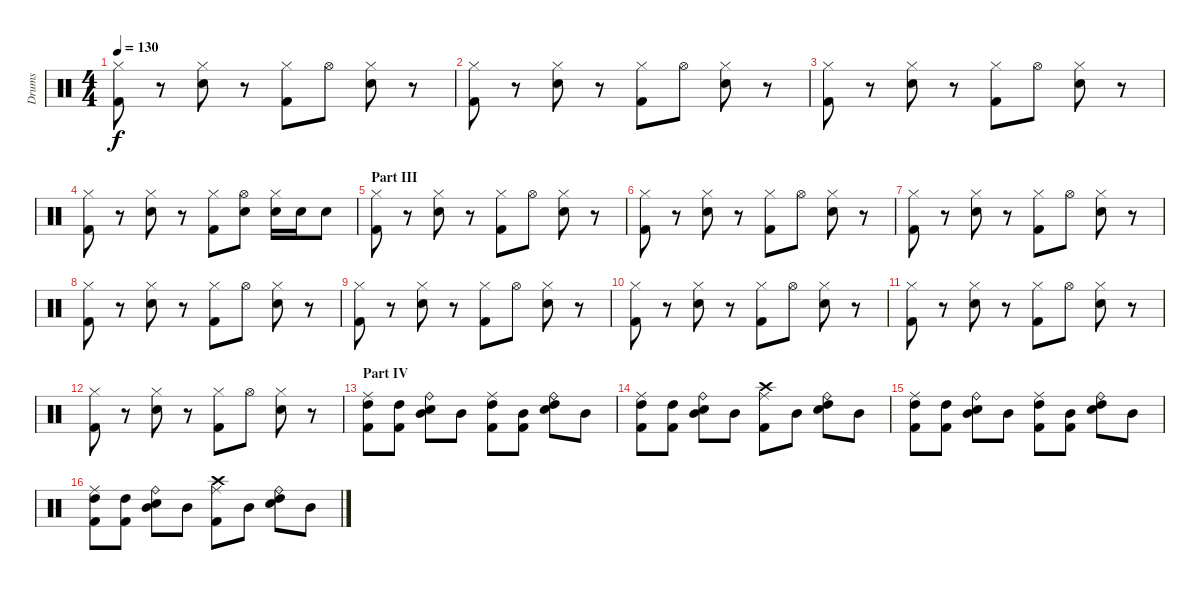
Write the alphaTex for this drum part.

\track ("Drums" "Drums") {instrument percussion}
\staff {score}
\articulation defaults
\ts (4 4)
\tempo 130
\clef neutral
\ks c
("Kick (hit) 2" "Hi-Hat (closed)").8{dy f} r.8 ("Snare (hit) 2" "Hi-Hat (closed)").8 r.8 ("Kick (hit) 2" "Hi-Hat (closed)").8 "Hi-Hat (open)".8 ("Snare (hit) 2" "Hi-Hat (closed)").8 r.8 |
("Kick (hit) 2" "Hi-Hat (closed)").8 r.8 ("Snare (hit) 2" "Hi-Hat (closed)").8 r.8 ("Kick (hit) 2" "Hi-Hat (closed)").8 "Hi-Hat (open)".8 ("Snare (hit) 2" "Hi-Hat (closed)").8 r.8 |
("Kick (hit) 2" "Hi-Hat (closed)").8 r.8 ("Snare (hit) 2" "Hi-Hat (closed)").8 r.8 ("Kick (hit) 2" "Hi-Hat (closed)").8 "Hi-Hat (open)".8 ("Snare (hit) 2" "Hi-Hat (closed)").8 r.8 |
("Kick (hit) 2" "Hi-Hat (closed)").8 r.8 ("Snare (hit) 2" "Hi-Hat (closed)").8 r.8 ("Kick (hit) 2" "Hi-Hat (closed)").8 ("Electric Snare (hit)" "Hi-Hat (open)").8 ("Snare (hit) 2" "Hi-Hat (closed)").16 "Electric Snare (hit)".16 "Electric Snare (hit)".8 |
\section ("" "Part III")
("Kick (hit) 2" "Hi-Hat (closed)").8 r.8 ("Snare (hit) 2" "Hi-Hat (closed)").8 r.8 ("Kick (hit) 2" "Hi-Hat (closed)").8 "Hi-Hat (open)".8 ("Snare (hit) 2" "Hi-Hat (closed)").8 r.8 |
("Kick (hit) 2" "Hi-Hat (closed)").8 r.8 ("Snare (hit) 2" "Hi-Hat (closed)").8 r.8 ("Kick (hit) 2" "Hi-Hat (closed)").8 "Hi-Hat (open)".8 ("Snare (hit) 2" "Hi-Hat (closed)").8 r.8 |
("Kick (hit) 2" "Hi-Hat (closed)").8 r.8 ("Snare (hit) 2" "Hi-Hat (closed)").8 r.8 ("Kick (hit) 2" "Hi-Hat (closed)").8 "Hi-Hat (open)".8 ("Snare (hit) 2" "Hi-Hat (closed)").8 r.8 |
("Kick (hit) 2" "Hi-Hat (closed)").8 r.8 ("Snare (hit) 2" "Hi-Hat (closed)").8 r.8 ("Kick (hit) 2" "Hi-Hat (closed)").8 "Hi-Hat (open)".8 ("Snare (hit) 2" "Hi-Hat (closed)").8 r.8 |
("Kick (hit) 2" "Hi-Hat (closed)").8 r.8 ("Snare (hit) 2" "Hi-Hat (closed)").8 r.8 ("Kick (hit) 2" "Hi-Hat (closed)").8 "Hi-Hat (open)".8 ("Snare (hit) 2" "Hi-Hat (closed)").8 r.8 |
("Kick (hit) 2" "Hi-Hat (closed)").8 r.8 ("Snare (hit) 2" "Hi-Hat (closed)").8 r.8 ("Kick (hit) 2" "Hi-Hat (closed)").8 "Hi-Hat (open)".8 ("Snare (hit) 2" "Hi-Hat (closed)").8 r.8 |
("Kick (hit) 2" "Hi-Hat (closed)").8 r.8 ("Snare (hit) 2" "Hi-Hat (closed)").8 r.8 ("Kick (hit) 2" "Hi-Hat (closed)").8 "Hi-Hat (open)".8 ("Snare (hit) 2" "Hi-Hat (closed)").8 r.8 |
("Kick (hit) 2" "Hi-Hat (closed)").8 r.8 ("Snare (hit) 2" "Hi-Hat (closed)").8 r.8 ("Kick (hit) 2" "Hi-Hat (closed)").8 "Hi-Hat (open)".8 ("Snare (hit) 2" "Hi-Hat (closed)").8 r.8 |
\section ("" "Part IV")
("Kick (hit) 2" "High Tom (hit)" "Ride (middle)").8 ("Kick (hit) 2" "High Tom (hit)").8 ("Snare (hit) 2" "Mid Tom (hit)" "Ride (bell)").8 "Mid Tom (hit)".8 ("Kick (hit) 2" "High Tom (hit)" "Ride (middle)").8 ("Kick (hit) 2" "Mid Tom (hit)").8 ("Snare (hit) 2" "High Tom (hit)" "Ride (bell)").8 "Mid Tom (hit)".8 |
("Kick (hit) 2" "High Tom (hit)" "Ride (middle)").8 ("Kick (hit) 2" "High Tom (hit)").8 ("Snare (hit) 2" "Mid Tom (hit)" "Ride (bell)").8 "Mid Tom (hit)".8 ("Kick (hit) 2" "Crash high (hit)" "Ride (middle)").8 "Mid Tom (hit)".8 ("Snare (hit) 2" "High Tom (hit)" "Ride (bell)").8 "Mid Tom (hit)".8 |
("Kick (hit) 2" "High Tom (hit)" "Ride (middle)").8 ("Kick (hit) 2" "High Tom (hit)").8 ("Snare (hit) 2" "Mid Tom (hit)" "Ride (bell)").8 "Mid Tom (hit)".8 ("Kick (hit) 2" "High Tom (hit)" "Ride (middle)").8 ("Kick (hit) 2" "Mid Tom (hit)").8 ("Snare (hit) 2" "High Tom (hit)" "Ride (bell)").8 "Mid Tom (hit)".8 |
("Kick (hit) 2" "High Tom (hit)" "Ride (middle)").8 ("Kick (hit) 2" "High Tom (hit)").8 ("Snare (hit) 2" "Mid Tom (hit)" "Ride (bell)").8 "Mid Tom (hit)".8 ("Kick (hit) 2" "Crash high (hit)" "Ride (middle)").8 "Mid Tom (hit)".8 ("Snare (hit) 2" "High Tom (hit)" "Ride (bell)").8 "Mid Tom (hit)".8
